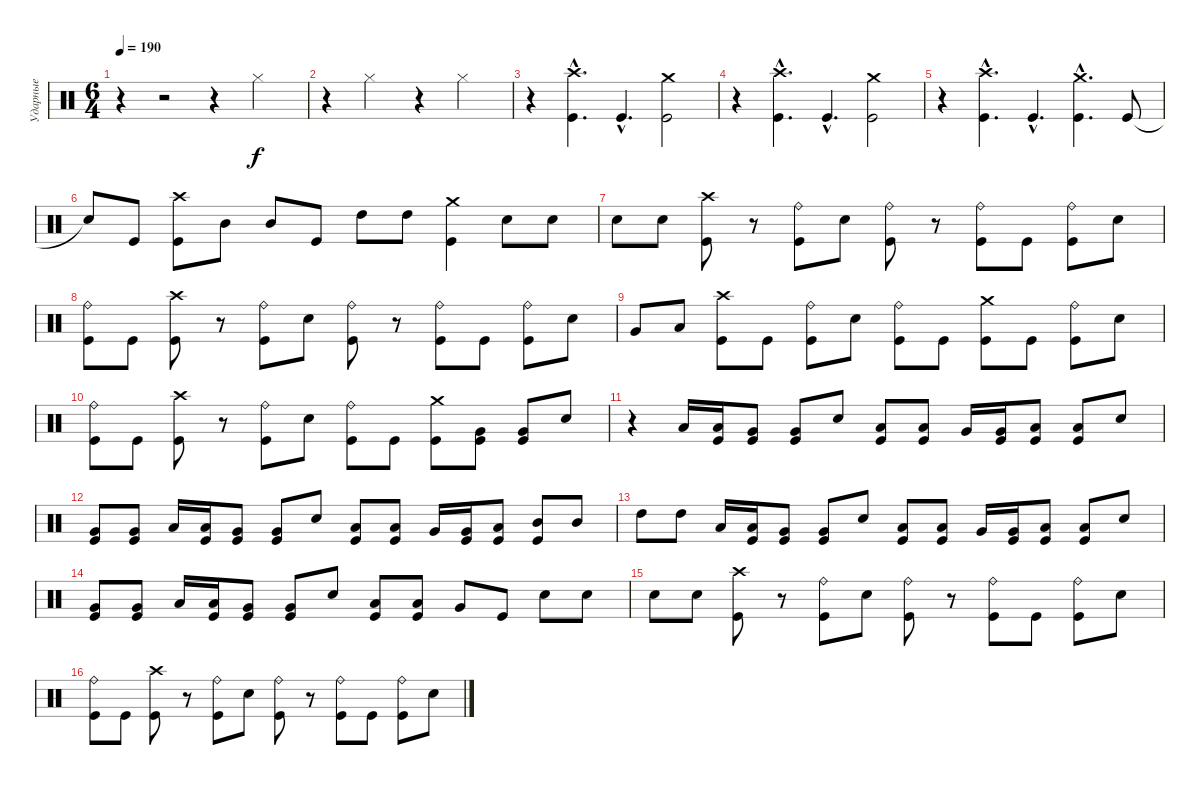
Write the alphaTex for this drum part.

\track ("Ударные" "Ударные") {instrument percussion}
\staff {score}
\articulation defaults
\ts (6 4)
\tempo 190
\clef neutral
\ks c
r.4{dy f} r.2 r.4 "Hi-Hat (closed)".2 |
r.4 "Hi-Hat (closed)".2 r.4 "Hi-Hat (closed)".2 |
r.4 ("Crash high (hit)"{hac} "Kick (hit)"{hac}).4{d} "Kick (hit)"{hac}.4{d} ("Crash medium (hit)" "Kick (hit)").2 |
r.4 ("Crash high (hit)"{hac} "Kick (hit)"{hac}).4{d} "Kick (hit)"{hac}.4{d} ("Crash medium (hit)" "Kick (hit)").2 |
r.4 ("Crash high (hit)"{hac} "Kick (hit)"{hac}).4{d} "Kick (hit)"{hac}.4{d} ("Crash medium (hit)"{hac} "Kick (hit)"{hac}).4{d} "Kick (hit)".8 |
"Snare (hit)"{t}.8 "Kick (hit)".8 ("Crash high (hit)" "Kick (hit)").8 "Mid Tom (hit)".8 "Mid Tom (hit)".8 "Kick (hit)".8 "High Tom (hit)".8 "High Tom (hit)".8 ("Crash medium (hit)" "Kick (hit)").4 "Electric Snare (hit)".8 "Electric Snare (hit)".8 |
"Electric Snare (hit)".8 "Electric Snare (hit)".8 ("Crash high (hit)" "Kick (hit)").8 r.8 ("Ride (bell)" "Kick (hit)").8 "Electric Snare (hit)".8 ("Ride (bell)" "Kick (hit)").8 r.8 ("Ride (bell)" "Kick (hit)").8 "Kick (hit)".8 ("Ride (bell)" "Kick (hit)").8 "Electric Snare (hit)".8 |
("Ride (bell)" "Kick (hit)").8 "Kick (hit)".8 ("Crash high (hit)" "Kick (hit)").8 r.8 ("Ride (bell)" "Kick (hit)").8 "Electric Snare (hit)".8 ("Ride (bell)" "Kick (hit)").8 r.8 ("Ride (bell)" "Kick (hit)").8 "Kick (hit)".8 ("Ride (bell)" "Kick (hit)").8 "Electric Snare (hit)".8 |
"Very Low Tom (hit)".8 "Low Tom (hit)".8 ("Crash high (hit)" "Kick (hit)").8 "Kick (hit)".8 ("Ride (bell)" "Kick (hit)").8 "Electric Snare (hit)".8 ("Ride (bell)" "Kick (hit)").8 "Kick (hit)".8 ("Crash medium (hit)" "Kick (hit)").8 "Kick (hit)".8 ("Ride (bell)" "Kick (hit)").8 "Electric Snare (hit)".8 |
("Ride (bell)" "Kick (hit)").8 "Kick (hit)".8 ("Crash high (hit)" "Kick (hit)").8 r.8 ("Ride (bell)" "Kick (hit)").8 "Electric Snare (hit)".8 ("Ride (bell)" "Kick (hit)").8 "Kick (hit)".8 ("Crash medium (hit)" "Kick (hit)").8 ("Very Low Tom (hit)" "Kick (hit)").8 ("Very Low Tom (hit)" "Kick (hit)").8 "Electric Snare (hit)".8 |
r.4 "Low Tom (hit)".16 ("Low Tom (hit)" "Kick (hit)").16 ("Very Low Tom (hit)" "Kick (hit)").8 ("Very Low Tom (hit)" "Kick (hit)").8 "Electric Snare (hit)".8 ("Low Tom (hit)" "Kick (hit)").8 ("Low Tom (hit)" "Kick (hit)").8 "Very Low Tom (hit)".16 ("Very Low Tom (hit)" "Kick (hit)").16 ("Low Tom (hit)" "Kick (hit)").8 ("Low Tom (hit)" "Kick (hit)").8 "Electric Snare (hit)".8 |
("Very Low Tom (hit)" "Kick (hit)").8 ("Very Low Tom (hit)" "Kick (hit)").8 "Low Tom (hit)".16 ("Low Tom (hit)" "Kick (hit)").16 ("Very Low Tom (hit)" "Kick (hit)").8 ("Very Low Tom (hit)" "Kick (hit)").8 "Electric Snare (hit)".8 ("Low Tom (hit)" "Kick (hit)").8 ("Low Tom (hit)" "Kick (hit)").8 "Very Low Tom (hit)".16 ("Very Low Tom (hit)" "Kick (hit)").16 ("Low Tom (hit)" "Kick (hit)").8 ("Mid Tom (hit)" "Kick (hit)").8 "Mid Tom (hit)".8 |
"High Tom (hit)".8 "High Tom (hit)".8 "Low Tom (hit)".16 ("Low Tom (hit)" "Kick (hit)").16 ("Very Low Tom (hit)" "Kick (hit)").8 ("Very Low Tom (hit)" "Kick (hit)").8 "Electric Snare (hit)".8 ("Low Tom (hit)" "Kick (hit)").8 ("Low Tom (hit)" "Kick (hit)").8 "Very Low Tom (hit)".16 ("Very Low Tom (hit)" "Kick (hit)").16 ("Low Tom (hit)" "Kick (hit)").8 ("Low Tom (hit)" "Kick (hit)").8 "Electric Snare (hit)".8 |
("Very Low Tom (hit)" "Kick (hit)").8 ("Very Low Tom (hit)" "Kick (hit)").8 "Low Tom (hit)".16 ("Low Tom (hit)" "Kick (hit)").16 ("Very Low Tom (hit)" "Kick (hit)").8 ("Very Low Tom (hit)" "Kick (hit)").8 "Electric Snare (hit)".8 ("Low Tom (hit)" "Kick (hit)").8 ("Low Tom (hit)" "Kick (hit)").8 "Very Low Tom (hit)".8 "Kick (hit)".8 "Electric Snare (hit)".8 "Electric Snare (hit)".8 |
"Electric Snare (hit)".8 "Electric Snare (hit)".8 ("Crash high (hit)" "Kick (hit)").8 r.8 ("Ride (bell)" "Kick (hit)").8 "Electric Snare (hit)".8 ("Ride (bell)" "Kick (hit)").8 r.8 ("Ride (bell)" "Kick (hit)").8 "Kick (hit)".8 ("Ride (bell)" "Kick (hit)").8 "Electric Snare (hit)".8 |
("Ride (bell)" "Kick (hit)").8 "Kick (hit)".8 ("Crash high (hit)" "Kick (hit)").8 r.8 ("Ride (bell)" "Kick (hit)").8 "Electric Snare (hit)".8 ("Ride (bell)" "Kick (hit)").8 r.8 ("Ride (bell)" "Kick (hit)").8 "Kick (hit)".8 ("Ride (bell)" "Kick (hit)").8 "Electric Snare (hit)".8
